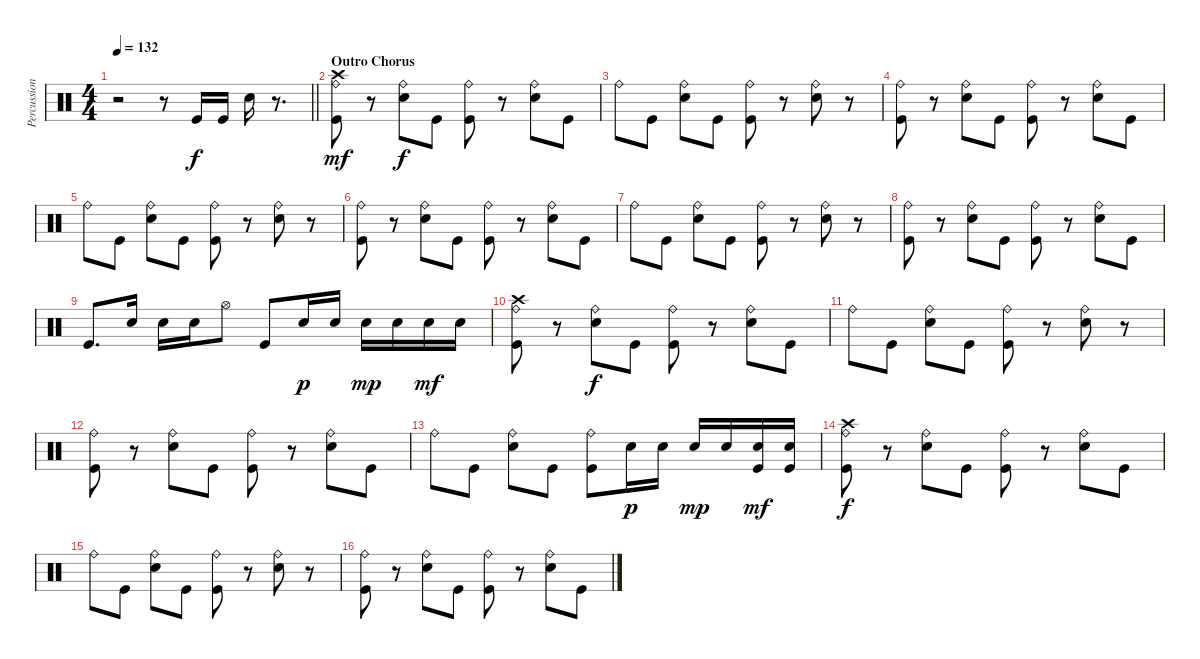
\track ("Percussion" "Percussion") {instrument percussion}
\staff {score}
\articulation defaults
\ts (4 4)
\tempo 132
\clef neutral
\barLineRight lightlight
\ks c
r.2{dy f} r.8 "Kick (hit)".16 "Kick (hit)".16 "Snare (hit) 2".16 r.8{d} |
\section ("" "Outro Chorus")
("Crash high (hit)" "Ride (bell)" "Kick (hit)").8{dy mf} r.8 ("Ride (bell)" "Snare (hit) 2").8{dy f} "Kick (hit)".8 ("Ride (bell)" "Kick (hit)").8 r.8 ("Ride (bell)" "Snare (hit) 2").8 "Kick (hit)".8 |
"Ride (bell)".8 "Kick (hit)".8 ("Ride (bell)" "Snare (hit) 2").8 "Kick (hit)".8 ("Ride (bell)" "Kick (hit)").8 r.8 ("Ride (bell)" "Snare (hit) 2").8 r.8 |
("Ride (bell)" "Kick (hit)").8 r.8 ("Ride (bell)" "Snare (hit) 2").8 "Kick (hit)".8 ("Ride (bell)" "Kick (hit)").8 r.8 ("Ride (bell)" "Snare (hit) 2").8 "Kick (hit)".8 |
"Ride (bell)".8 "Kick (hit)".8 ("Ride (bell)" "Snare (hit) 2").8 "Kick (hit)".8 ("Ride (bell)" "Kick (hit)").8 r.8 ("Ride (bell)" "Snare (hit) 2").8 r.8 |
("Ride (bell)" "Kick (hit)").8 r.8 ("Ride (bell)" "Snare (hit) 2").8 "Kick (hit)".8 ("Ride (bell)" "Kick (hit)").8 r.8 ("Ride (bell)" "Snare (hit) 2").8 "Kick (hit)".8 |
"Ride (bell)".8 "Kick (hit)".8 ("Ride (bell)" "Snare (hit) 2").8 "Kick (hit)".8 ("Ride (bell)" "Kick (hit)").8 r.8 ("Ride (bell)" "Snare (hit) 2").8 r.8 |
("Ride (bell)" "Kick (hit)").8 r.8 ("Ride (bell)" "Snare (hit) 2").8 "Kick (hit)".8 ("Ride (bell)" "Kick (hit)").8 r.8 ("Ride (bell)" "Snare (hit) 2").8 "Kick (hit)".8 |
"Kick (hit)".8{d} "Snare (hit) 2".16 "Snare (hit) 2".16 "Snare (hit) 2".16 "Hi-Hat (open)".8 "Kick (hit)".8 "Snare (hit) 2".16{dy p} "Snare (hit) 2".16 "Snare (hit) 2".16{dy mp} "Snare (hit) 2".16 "Snare (hit) 2".16{dy mf} "Snare (hit) 2".16 |
("Crash high (hit)" "Ride (bell)" "Kick (hit)").8 r.8 ("Ride (bell)" "Snare (hit) 2").8{dy f} "Kick (hit)".8 ("Ride (bell)" "Kick (hit)").8 r.8 ("Ride (bell)" "Snare (hit) 2").8 "Kick (hit)".8 |
"Ride (bell)".8 "Kick (hit)".8 ("Ride (bell)" "Snare (hit) 2").8 "Kick (hit)".8 ("Ride (bell)" "Kick (hit)").8 r.8 ("Ride (bell)" "Snare (hit) 2").8 r.8 |
("Ride (bell)" "Kick (hit)").8 r.8 ("Ride (bell)" "Snare (hit) 2").8 "Kick (hit)".8 ("Ride (bell)" "Kick (hit)").8 r.8 ("Ride (bell)" "Snare (hit) 2").8 "Kick (hit)".8 |
"Ride (bell)".8 "Kick (hit)".8 ("Ride (bell)" "Snare (hit) 2").8 "Kick (hit)".8 ("Ride (bell)" "Kick (hit)").8 "Snare (hit) 2".16{dy p} "Snare (hit) 2".16 "Snare (hit) 2".16{dy mp} "Snare (hit) 2".16 ("Snare (hit) 2" "Kick (hit)").16{dy mf} ("Snare (hit) 2" "Kick (hit)").16 |
("Crash high (hit)" "Ride (bell)" "Kick (hit)").8{dy f} r.8 ("Ride (bell)" "Snare (hit) 2").8 "Kick (hit)".8 ("Ride (bell)" "Kick (hit)").8 r.8 ("Ride (bell)" "Snare (hit) 2").8 "Kick (hit)".8 |
"Ride (bell)".8 "Kick (hit)".8 ("Ride (bell)" "Snare (hit) 2").8 "Kick (hit)".8 ("Ride (bell)" "Kick (hit)").8 r.8 ("Ride (bell)" "Snare (hit) 2").8 r.8 |
("Ride (bell)" "Kick (hit)").8 r.8 ("Ride (bell)" "Snare (hit) 2").8 "Kick (hit)".8 ("Ride (bell)" "Kick (hit)").8 r.8 ("Ride (bell)" "Snare (hit) 2").8 "Kick (hit)".8
